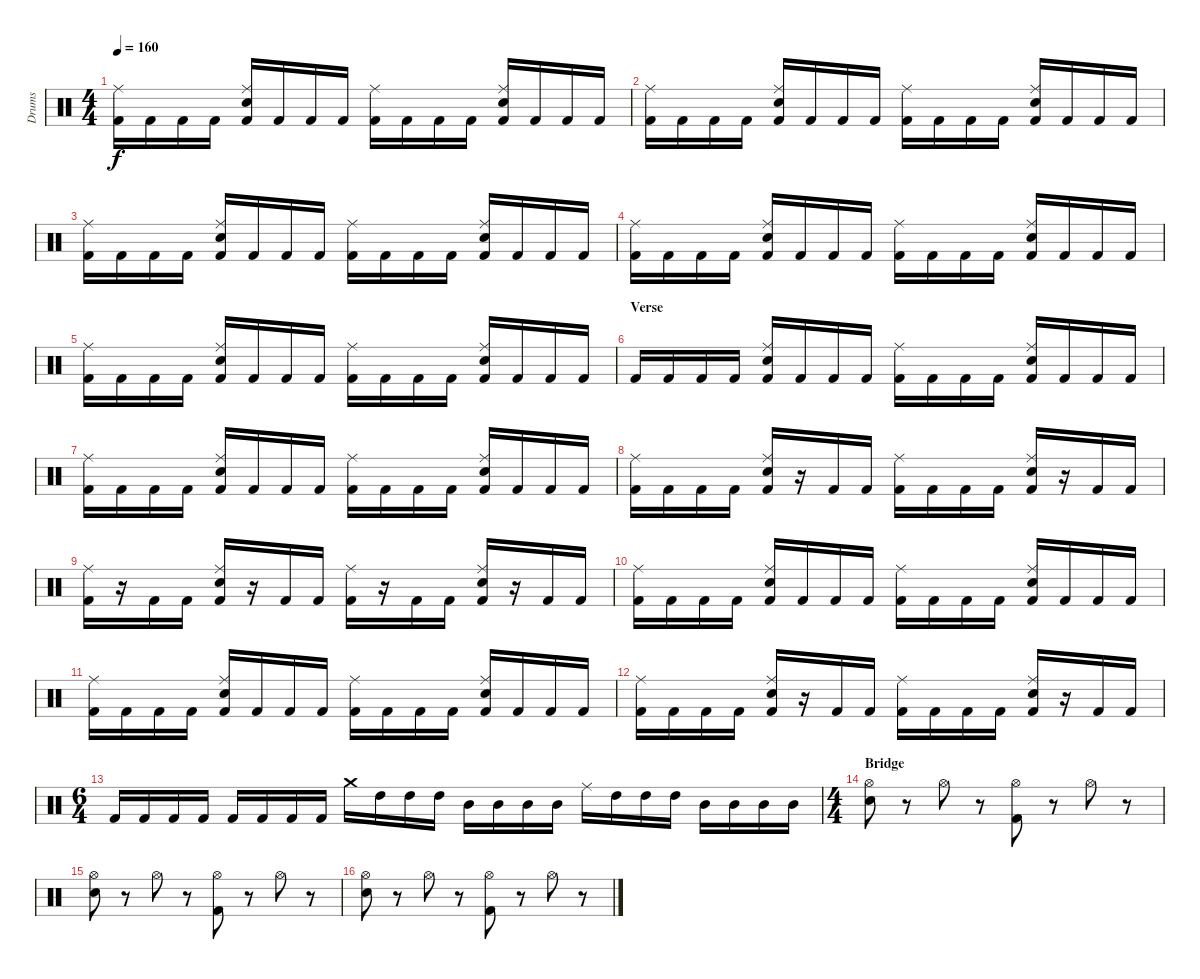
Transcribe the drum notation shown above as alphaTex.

\track ("Drums" "Drums") {instrument percussion}
\staff {score}
\articulation defaults
\ts (4 4)
\tempo 160
\clef neutral
\ks c
("Kick (hit) 2" "Ride (middle)").16{dy f} "Kick (hit) 2".16 "Kick (hit) 2".16 "Kick (hit) 2".16 ("Kick (hit) 2" "Electric Snare (hit)" "Ride (middle)").16 "Kick (hit) 2".16 "Kick (hit) 2".16 "Kick (hit) 2".16 ("Kick (hit) 2" "Ride (middle)").16 "Kick (hit) 2".16 "Kick (hit) 2".16 "Kick (hit) 2".16 ("Kick (hit) 2" "Electric Snare (hit)" "Ride (middle)").16 "Kick (hit) 2".16 "Kick (hit) 2".16 "Kick (hit) 2".16 |
("Kick (hit) 2" "Ride (middle)").16 "Kick (hit) 2".16 "Kick (hit) 2".16 "Kick (hit) 2".16 ("Kick (hit) 2" "Electric Snare (hit)" "Ride (middle)").16 "Kick (hit) 2".16 "Kick (hit) 2".16 "Kick (hit) 2".16 ("Kick (hit) 2" "Ride (middle)").16 "Kick (hit) 2".16 "Kick (hit) 2".16 "Kick (hit) 2".16 ("Kick (hit) 2" "Electric Snare (hit)" "Ride (middle)").16 "Kick (hit) 2".16 "Kick (hit) 2".16 "Kick (hit) 2".16 |
("Kick (hit) 2" "Ride (middle)").16 "Kick (hit) 2".16 "Kick (hit) 2".16 "Kick (hit) 2".16 ("Kick (hit) 2" "Electric Snare (hit)" "Ride (middle)").16 "Kick (hit) 2".16 "Kick (hit) 2".16 "Kick (hit) 2".16 ("Kick (hit) 2" "Ride (middle)").16 "Kick (hit) 2".16 "Kick (hit) 2".16 "Kick (hit) 2".16 ("Kick (hit) 2" "Electric Snare (hit)" "Ride (middle)").16 "Kick (hit) 2".16 "Kick (hit) 2".16 "Kick (hit) 2".16 |
("Kick (hit) 2" "Ride (middle)").16 "Kick (hit) 2".16 "Kick (hit) 2".16 "Kick (hit) 2".16 ("Kick (hit) 2" "Electric Snare (hit)" "Ride (middle)").16 "Kick (hit) 2".16 "Kick (hit) 2".16 "Kick (hit) 2".16 ("Kick (hit) 2" "Ride (middle)").16 "Kick (hit) 2".16 "Kick (hit) 2".16 "Kick (hit) 2".16 ("Kick (hit) 2" "Electric Snare (hit)" "Ride (middle)").16 "Kick (hit) 2".16 "Kick (hit) 2".16 "Kick (hit) 2".16 |
("Kick (hit) 2" "Ride (middle)").16 "Kick (hit) 2".16 "Kick (hit) 2".16 "Kick (hit) 2".16 ("Kick (hit) 2" "Electric Snare (hit)" "Ride (middle)").16 "Kick (hit) 2".16 "Kick (hit) 2".16 "Kick (hit) 2".16 ("Kick (hit) 2" "Ride (middle)").16 "Kick (hit) 2".16 "Kick (hit) 2".16 "Kick (hit) 2".16 ("Kick (hit) 2" "Electric Snare (hit)" "Ride (middle)").16 "Kick (hit) 2".16 "Kick (hit) 2".16 "Kick (hit) 2".16 |
\section ("" "Verse")
"Kick (hit) 2".16 "Kick (hit) 2".16 "Kick (hit) 2".16 "Kick (hit) 2".16 ("Kick (hit) 2" "Electric Snare (hit)" "Ride (middle)").16 "Kick (hit) 2".16 "Kick (hit) 2".16 "Kick (hit) 2".16 ("Kick (hit) 2" "Ride (middle)").16 "Kick (hit) 2".16 "Kick (hit) 2".16 "Kick (hit) 2".16 ("Kick (hit) 2" "Electric Snare (hit)" "Ride (middle)").16 "Kick (hit) 2".16 "Kick (hit) 2".16 "Kick (hit) 2".16 |
("Kick (hit) 2" "Ride (middle)").16 "Kick (hit) 2".16 "Kick (hit) 2".16 "Kick (hit) 2".16 ("Kick (hit) 2" "Electric Snare (hit)" "Ride (middle)").16 "Kick (hit) 2".16 "Kick (hit) 2".16 "Kick (hit) 2".16 ("Kick (hit) 2" "Ride (middle)").16 "Kick (hit) 2".16 "Kick (hit) 2".16 "Kick (hit) 2".16 ("Kick (hit) 2" "Electric Snare (hit)" "Ride (middle)").16 "Kick (hit) 2".16 "Kick (hit) 2".16 "Kick (hit) 2".16 |
("Kick (hit) 2" "Ride (middle)").16 "Kick (hit) 2".16 "Kick (hit) 2".16 "Kick (hit) 2".16 ("Kick (hit) 2" "Electric Snare (hit)" "Ride (middle)").16 r.16 "Kick (hit) 2".16 "Kick (hit) 2".16 ("Kick (hit) 2" "Ride (middle)").16 "Kick (hit) 2".16 "Kick (hit) 2".16 "Kick (hit) 2".16 ("Kick (hit) 2" "Electric Snare (hit)" "Ride (middle)").16 r.16 "Kick (hit) 2".16 "Kick (hit) 2".16 |
("Kick (hit) 2" "Ride (middle)").16 r.16 "Kick (hit) 2".16 "Kick (hit) 2".16 ("Kick (hit) 2" "Electric Snare (hit)" "Ride (middle)").16 r.16 "Kick (hit) 2".16 "Kick (hit) 2".16 ("Kick (hit) 2" "Ride (middle)").16 r.16 "Kick (hit) 2".16 "Kick (hit) 2".16 ("Kick (hit) 2" "Electric Snare (hit)" "Ride (middle)").16 r.16 "Kick (hit) 2".16 "Kick (hit) 2".16 |
("Kick (hit) 2" "Ride (middle)").16 "Kick (hit) 2".16 "Kick (hit) 2".16 "Kick (hit) 2".16 ("Kick (hit) 2" "Electric Snare (hit)" "Ride (middle)").16 "Kick (hit) 2".16 "Kick (hit) 2".16 "Kick (hit) 2".16 ("Kick (hit) 2" "Ride (middle)").16 "Kick (hit) 2".16 "Kick (hit) 2".16 "Kick (hit) 2".16 ("Kick (hit) 2" "Electric Snare (hit)" "Ride (middle)").16 "Kick (hit) 2".16 "Kick (hit) 2".16 "Kick (hit) 2".16 |
("Kick (hit) 2" "Ride (middle)").16 "Kick (hit) 2".16 "Kick (hit) 2".16 "Kick (hit) 2".16 ("Kick (hit) 2" "Electric Snare (hit)" "Ride (middle)").16 "Kick (hit) 2".16 "Kick (hit) 2".16 "Kick (hit) 2".16 ("Kick (hit) 2" "Ride (middle)").16 "Kick (hit) 2".16 "Kick (hit) 2".16 "Kick (hit) 2".16 ("Kick (hit) 2" "Electric Snare (hit)" "Ride (middle)").16 "Kick (hit) 2".16 "Kick (hit) 2".16 "Kick (hit) 2".16 |
("Kick (hit) 2" "Ride (middle)").16 "Kick (hit) 2".16 "Kick (hit) 2".16 "Kick (hit) 2".16 ("Kick (hit) 2" "Electric Snare (hit)" "Ride (middle)").16 r.16 "Kick (hit) 2".16 "Kick (hit) 2".16 ("Kick (hit) 2" "Ride (middle)").16 "Kick (hit) 2".16 "Kick (hit) 2".16 "Kick (hit) 2".16 ("Kick (hit) 2" "Electric Snare (hit)" "Ride (middle)").16 r.16 "Kick (hit) 2".16 "Kick (hit) 2".16 |
\ts (6 4)
"Kick (hit) 2".16 "Kick (hit) 2".16 "Kick (hit) 2".16 "Kick (hit) 2".16 "Kick (hit) 2".16 "Kick (hit) 2".16 "Kick (hit) 2".16 "Kick (hit) 2".16 "Crash medium (hit)".16 "High Tom (hit)".16 "High Tom (hit)".16 "High Tom (hit)".16 "Mid Tom (hit)".16 "Mid Tom (hit)".16 "Mid Tom (hit)".16 "Mid Tom (hit)".16 "Ride (middle)".16 "High Tom (hit)".16 "High Tom (hit)".16 "High Tom (hit)".16 "Mid Tom (hit)".16 "Mid Tom (hit)".16 "Mid Tom (hit)".16 "Mid Tom (hit)".16 |
\ts (4 4)
\section ("" "Bridge")
("Electric Snare (hit)" "Hi-Hat (open)").8 r.8 "Hi-Hat (open)".8 r.8 ("Kick (hit) 2" "Hi-Hat (open)").8 r.8 "Hi-Hat (open)".8 r.8 |
("Electric Snare (hit)" "Hi-Hat (open)").8 r.8 "Hi-Hat (open)".8 r.8 ("Kick (hit) 2" "Hi-Hat (open)").8 r.8 "Hi-Hat (open)".8 r.8 |
("Electric Snare (hit)" "Hi-Hat (open)").8 r.8 "Hi-Hat (open)".8 r.8 ("Kick (hit) 2" "Hi-Hat (open)").8 r.8 "Hi-Hat (open)".8 r.8
